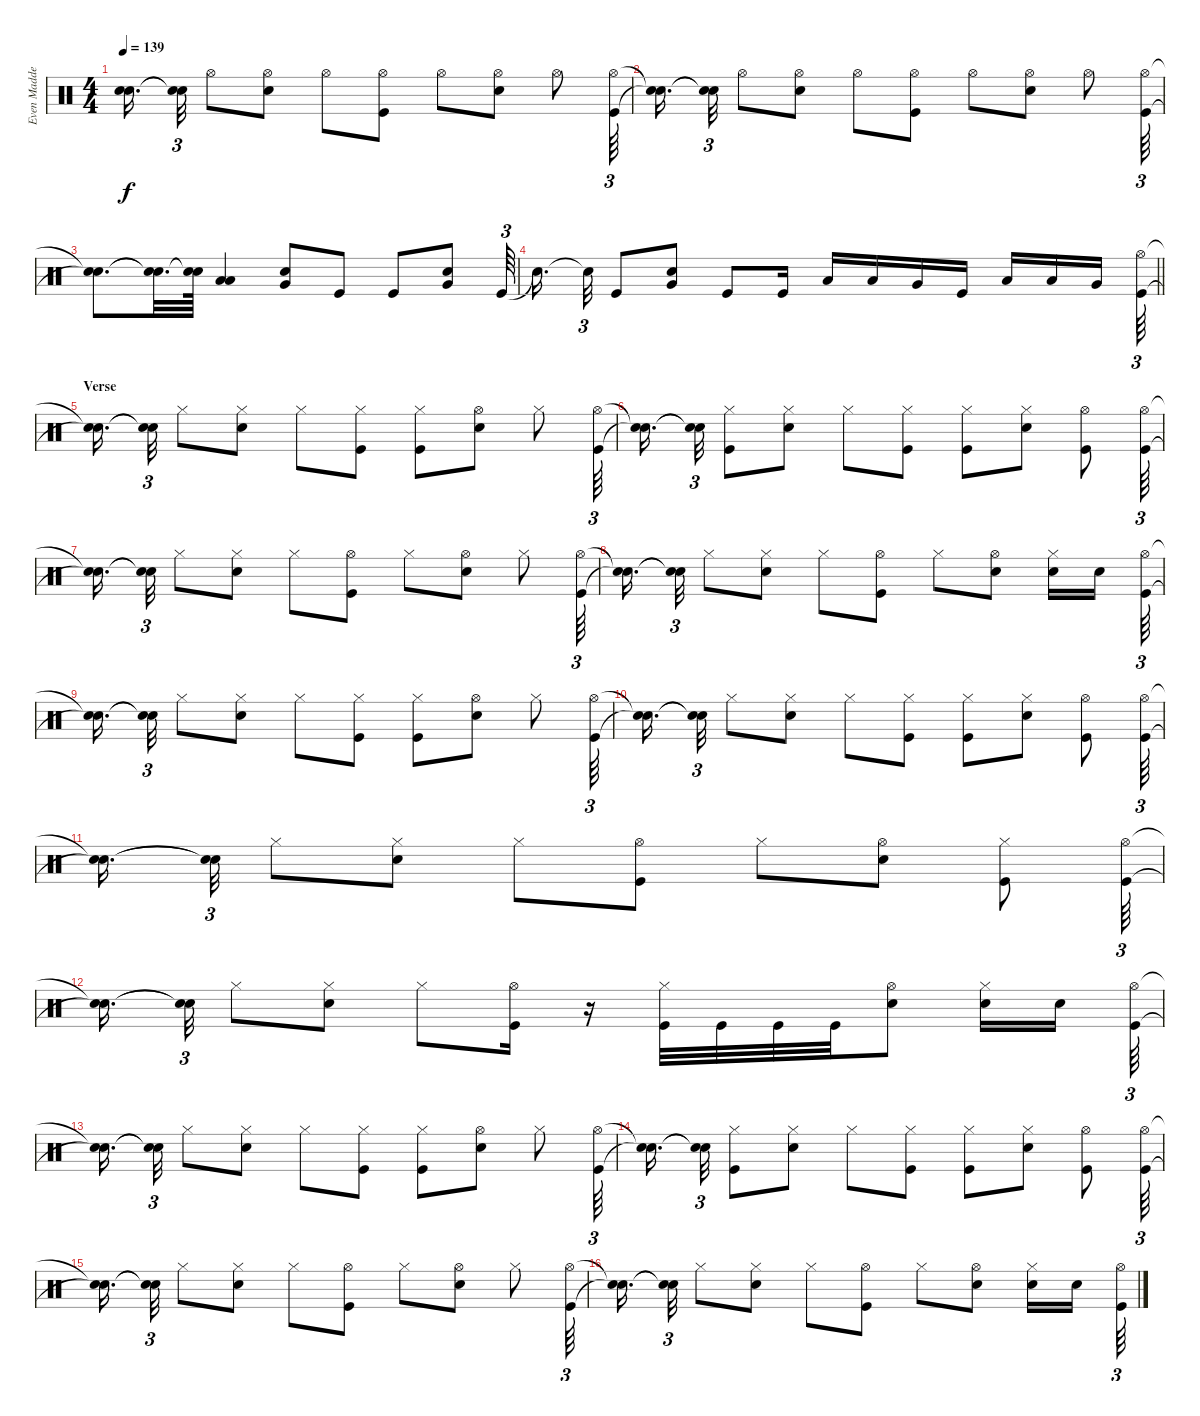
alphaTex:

\track ("Even Madden - Drums" "Even Madde") {instrument percussion}
\staff {score}
\articulation defaults
\ts (4 4)
\tempo 139
\clef neutral
\ks c
("Snare (hit)"{t} "Snare (hit)"{t}).16{d dy f beam splitsecondary} ("Snare (hit)"{t} "Snare (hit)"{t}).32{tu (3 2)} "Hi-Hat (open)".8 ("Hi-Hat (open)" "Snare (hit) 2").8 "Hi-Hat (open)".8 ("Hi-Hat (open)" "Kick (hit)").8 "Hi-Hat (open)".8 ("Hi-Hat (open)" "Snare (hit) 2").8 "Hi-Hat (open)".8 ("Hi-Hat (open)" "Kick (hit)").64{tu (3 2)} |
("Snare (hit)"{t} "Snare (hit)"{t}).16{d beam splitsecondary} ("Snare (hit)"{t} "Snare (hit)"{t}).32{tu (3 2)} "Hi-Hat (open)".8 ("Hi-Hat (open)" "Snare (hit) 2").8 "Hi-Hat (open)".8 ("Hi-Hat (open)" "Kick (hit)").8 "Hi-Hat (open)".8 ("Hi-Hat (open)" "Snare (hit) 2").8 "Hi-Hat (open)".8 ("Kick (hit)" "Hi-Hat (open)").64{tu (3 2)} |
("Snare (hit)"{t} "Snare (hit)"{t}).8{d} ("Snare (hit)"{t} "Snare (hit)"{t}).32{d} ("Snare (hit)"{t} "Snare (hit)"{t}).64 ("Low Tom (hit)" "Low Floor Tom (hit)").4 ("Snare (hit) 2" "Very Low Tom (hit)").8 "Kick (hit)".8 "Kick (hit)".8 ("Snare (hit) 2" "Very Low Tom (hit)").8 "Kick (hit)".64{tu (3 2)} |
\barLineRight lightlight "Snare (hit)"{t}.16{d beam splitsecondary} "Snare (hit)"{t}.32{tu (3 2)} "Kick (hit)".8
("Snare (hit) 2" "Very Low Tom (hit)").8 "Kick (hit)".8 "Kick (hit)".16 "Low Tom (hit)".16 "Low Tom (hit)".16 "Very Low Tom (hit)".16 "Kick (hit)".16 "Low Tom (hit)".16 "Low Tom (hit)".16 "Very Low Tom (hit)".16{beam splitsecondary} ("Kick (hit)" "Hi-Hat (open)").64{tu (3 2)} |
\section ("" "Verse")
("Snare (hit)"{t} "Snare (hit)"{t}).16{d beam splitsecondary} ("Snare (hit)"{t} "Snare (hit)"{t}).32{tu (3 2)} "Hi-Hat (closed)".8 ("Hi-Hat (closed)" "Snare (hit) 2").8 "Hi-Hat (closed)".8 ("Hi-Hat (closed)" "Kick (hit)").8 ("Hi-Hat (closed)" "Kick (hit)").8 ("Hi-Hat (open)" "Snare (hit) 2").8 "Hi-Hat (closed)".8 ("Kick (hit)" "Hi-Hat (open)").64{tu (3 2)} |
("Snare (hit)"{t} "Snare (hit)"{t}).16{d beam splitsecondary} ("Snare (hit)"{t} "Snare (hit)"{t}).32{tu (3 2)} ("Hi-Hat (closed)" "Kick (hit)").8 ("Hi-Hat (closed)" "Snare (hit) 2").8 "Hi-Hat (closed)".8 ("Hi-Hat (closed)" "Kick (hit)").8 ("Hi-Hat (closed)" "Kick (hit)").8 ("Hi-Hat (closed)" "Snare (hit) 2").8 ("Hi-Hat (open)" "Kick (hit)").8 ("Kick (hit)" "Hi-Hat (open)").64{tu (3 2)} |
("Snare (hit)"{t} "Snare (hit)"{t}).16{d beam splitsecondary} ("Snare (hit)"{t} "Snare (hit)"{t}).32{tu (3 2)} "Hi-Hat (closed)".8 ("Hi-Hat (closed)" "Snare (hit) 2").8 "Hi-Hat (closed)".8 ("Hi-Hat (open)" "Kick (hit)").8 "Hi-Hat (closed)".8 ("Hi-Hat (open)" "Snare (hit) 2").8 "Hi-Hat (closed)".8 ("Kick (hit)" "Hi-Hat (open)").64{tu (3 2)} |
("Snare (hit)"{t} "Snare (hit)"{t}).16{d beam splitsecondary} ("Snare (hit)"{t} "Snare (hit)"{t}).32{tu (3 2)} "Hi-Hat (closed)".8 ("Hi-Hat (closed)" "Snare (hit) 2").8 "Hi-Hat (closed)".8 ("Hi-Hat (open)" "Kick (hit)").8 "Hi-Hat (closed)".8 ("Hi-Hat (open)" "Snare (hit) 2").8 ("Hi-Hat (closed)" "Snare (hit) 2").16 "Snare (hit) 2".16{beam splitsecondary} ("Kick (hit)" "Hi-Hat (open)").64{tu (3 2)} |
("Snare (hit)"{t} "Snare (hit)"{t}).16{d beam splitsecondary} ("Snare (hit)"{t} "Snare (hit)"{t}).32{tu (3 2)} "Hi-Hat (closed)".8 ("Hi-Hat (closed)" "Snare (hit) 2").8 "Hi-Hat (closed)".8 ("Hi-Hat (closed)" "Kick (hit)").8 ("Hi-Hat (closed)" "Kick (hit)").8 ("Hi-Hat (open)" "Snare (hit) 2").8 "Hi-Hat (closed)".8 ("Kick (hit)" "Hi-Hat (open)").64{tu (3 2)} |
("Snare (hit)"{t} "Snare (hit)"{t}).16{d beam splitsecondary} ("Snare (hit)"{t} "Snare (hit)"{t}).32{tu (3 2)} "Hi-Hat (closed)".8 ("Hi-Hat (closed)" "Snare (hit) 2").8 "Hi-Hat (closed)".8 ("Hi-Hat (closed)" "Kick (hit)").8 ("Hi-Hat (closed)" "Kick (hit)").8 ("Hi-Hat (closed)" "Snare (hit) 2").8 ("Hi-Hat (open)" "Kick (hit)").8 ("Kick (hit)" "Hi-Hat (open)").64{tu (3 2)} |
("Snare (hit)"{t} "Snare (hit)"{t}).16{d beam splitsecondary} ("Snare (hit)"{t} "Snare (hit)"{t}).32{tu (3 2)} "Hi-Hat (closed)".8 ("Hi-Hat (closed)" "Snare (hit) 2").8 "Hi-Hat (closed)".8 ("Hi-Hat (open)" "Kick (hit)").8 "Hi-Hat (closed)".8 ("Hi-Hat (open)" "Snare (hit) 2").8 ("Hi-Hat (closed)" "Kick (hit)").8 ("Kick (hit)" "Hi-Hat (open)").64{tu (3 2)} |
("Snare (hit)"{t} "Snare (hit)"{t}).16{d beam splitsecondary} ("Snare (hit)"{t} "Snare (hit)"{t}).32{tu (3 2)} "Hi-Hat (closed)".8 ("Hi-Hat (closed)" "Snare (hit) 2").8 "Hi-Hat (closed)".8 ("Hi-Hat (open)" "Kick (hit)").16 r.16 ("Hi-Hat (closed)" "Kick (hit)").32 "Kick (hit)".32 "Kick (hit)".32 "Kick (hit)".32 ("Hi-Hat (open)" "Snare (hit) 2").8 ("Hi-Hat (closed)" "Snare (hit) 2").16 "Snare (hit) 2".16{beam splitsecondary} ("Kick (hit)" "Hi-Hat (open)").64{tu (3 2)} |
("Snare (hit)"{t} "Snare (hit)"{t}).16{d beam splitsecondary} ("Snare (hit)"{t} "Snare (hit)"{t}).32{tu (3 2)} "Hi-Hat (closed)".8 ("Hi-Hat (closed)" "Snare (hit) 2").8 "Hi-Hat (closed)".8 ("Hi-Hat (closed)" "Kick (hit)").8 ("Hi-Hat (closed)" "Kick (hit)").8 ("Hi-Hat (open)" "Snare (hit) 2").8 "Hi-Hat (closed)".8 ("Kick (hit)" "Hi-Hat (open)").64{tu (3 2)} |
("Snare (hit)"{t} "Snare (hit)"{t}).16{d beam splitsecondary} ("Snare (hit)"{t} "Snare (hit)"{t}).32{tu (3 2)} ("Hi-Hat (closed)" "Kick (hit)").8 ("Hi-Hat (closed)" "Snare (hit) 2").8 "Hi-Hat (closed)".8 ("Hi-Hat (closed)" "Kick (hit)").8 ("Hi-Hat (closed)" "Kick (hit)").8 ("Hi-Hat (closed)" "Snare (hit) 2").8 ("Hi-Hat (open)" "Kick (hit)").8 ("Kick (hit)" "Hi-Hat (open)").64{tu (3 2)} |
("Snare (hit)"{t} "Snare (hit)"{t}).16{d beam splitsecondary} ("Snare (hit)"{t} "Snare (hit)"{t}).32{tu (3 2)} "Hi-Hat (closed)".8 ("Hi-Hat (closed)" "Snare (hit) 2").8 "Hi-Hat (closed)".8 ("Hi-Hat (open)" "Kick (hit)").8 "Hi-Hat (closed)".8 ("Hi-Hat (open)" "Snare (hit) 2").8 "Hi-Hat (closed)".8 ("Kick (hit)" "Hi-Hat (open)").64{tu (3 2)} |
("Snare (hit)"{t} "Snare (hit)"{t}).16{d beam splitsecondary} ("Snare (hit)"{t} "Snare (hit)"{t}).32{tu (3 2)} "Hi-Hat (closed)".8 ("Hi-Hat (closed)" "Snare (hit) 2").8 "Hi-Hat (closed)".8 ("Hi-Hat (open)" "Kick (hit)").8 "Hi-Hat (closed)".8 ("Hi-Hat (open)" "Snare (hit) 2").8 ("Hi-Hat (closed)" "Snare (hit) 2").16 "Snare (hit) 2".16{beam splitsecondary} ("Kick (hit)" "Hi-Hat (open)").64{tu (3 2)}
